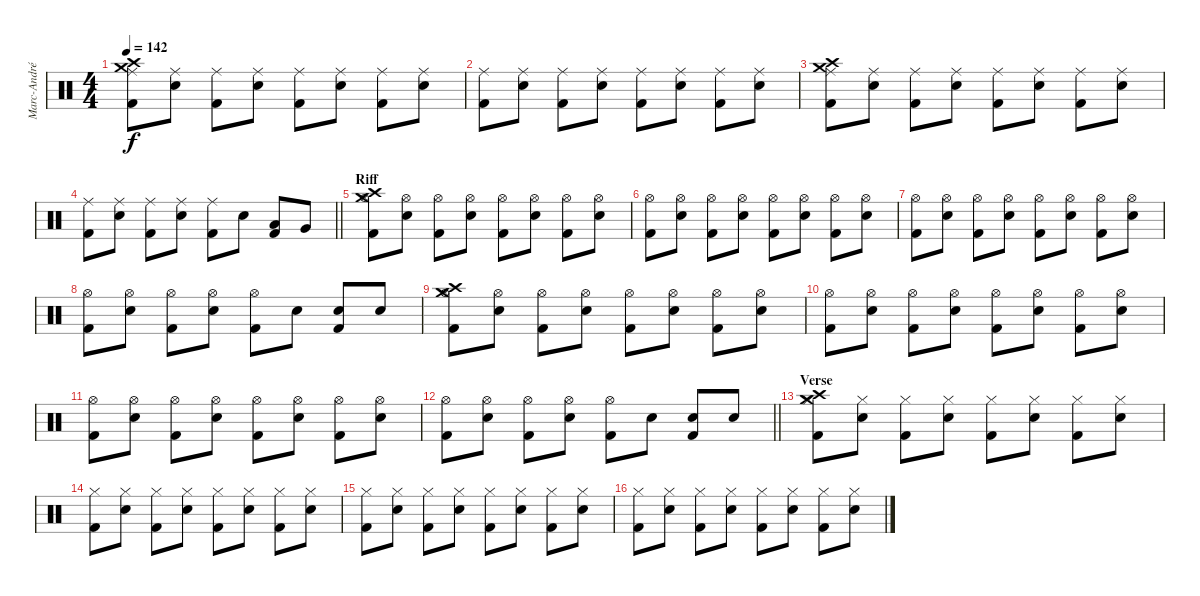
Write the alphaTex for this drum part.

\track ("Marc-André Barabé" "Marc-André") {instrument percussion}
\staff {score}
\articulation defaults
\ts (4 4)
\tempo 142
\clef neutral
\ks c
("Crash high (hit)" "Crash medium (hit)" "Ride (middle)" "Kick (hit) 2").8{dy f} ("Ride (middle)" "Electric Snare (hit)").8 ("Ride (middle)" "Kick (hit) 2"{tr (2 32)}).8 ("Ride (middle)" "Electric Snare (hit)").8 ("Ride (middle)" "Kick (hit) 2").8 ("Ride (middle)" "Electric Snare (hit)").8 ("Ride (middle)" "Kick (hit) 2"{tr (2 32)}).8 ("Ride (middle)" "Electric Snare (hit)").8 |
("Ride (middle)" "Kick (hit) 2").8 ("Ride (middle)" "Electric Snare (hit)").8 ("Ride (middle)" "Kick (hit) 2"{tr (2 32)}).8 ("Ride (middle)" "Electric Snare (hit)").8 ("Ride (middle)" "Kick (hit) 2").8 ("Ride (middle)" "Electric Snare (hit)").8 ("Ride (middle)" "Kick (hit) 2"{tr (2 32)}).8 ("Ride (middle)" "Electric Snare (hit)").8 |
("Crash high (hit)" "Crash medium (hit)" "Ride (middle)" "Kick (hit) 2").8 ("Ride (middle)" "Electric Snare (hit)").8 ("Ride (middle)" "Kick (hit) 2"{tr (2 32)}).8 ("Ride (middle)" "Electric Snare (hit)").8 ("Ride (middle)" "Kick (hit) 2").8 ("Ride (middle)" "Electric Snare (hit)").8 ("Ride (middle)" "Kick (hit) 2"{tr (2 32)}).8 ("Ride (middle)" "Electric Snare (hit)").8 |
\barLineRight lightlight
("Ride (middle)" "Kick (hit) 2").8 ("Ride (middle)" "Electric Snare (hit)").8 ("Ride (middle)" "Kick (hit) 2"{tr (2 32)}).8 ("Ride (middle)" "Electric Snare (hit)").8 ("Ride (middle)" "Kick (hit) 2").8 "Electric Snare (hit)"{tr (4 32)}.8 ("Low Tom (hit)"{tr (4 32)} "Kick (hit) 2"{tr (2 32)}).8 "Very Low Tom (hit)"{tr (4 32)}.8 |
\section ("" "Riff")
("Crash high (hit)" "Crash medium (hit)" "Hi-Hat (open)" "Kick (hit) 2").8 ("Hi-Hat (open)" "Electric Snare (hit)").8 ("Hi-Hat (open)" "Kick (hit) 2"{tr (2 32)}).8 ("Hi-Hat (open)" "Electric Snare (hit)").8 ("Hi-Hat (open)" "Kick (hit) 2").8 ("Hi-Hat (open)" "Electric Snare (hit)").8 ("Hi-Hat (open)" "Kick (hit) 2"{tr (2 32)}).8 ("Hi-Hat (open)" "Electric Snare (hit)").8 |
("Hi-Hat (open)" "Kick (hit) 2").8 ("Hi-Hat (open)" "Electric Snare (hit)").8 ("Hi-Hat (open)" "Kick (hit) 2"{tr (2 32)}).8 ("Hi-Hat (open)" "Electric Snare (hit)").8 ("Hi-Hat (open)" "Kick (hit) 2").8 ("Hi-Hat (open)" "Electric Snare (hit)").8 ("Hi-Hat (open)" "Kick (hit) 2"{tr (2 32)}).8 ("Hi-Hat (open)" "Electric Snare (hit)").8 |
("Hi-Hat (open)" "Kick (hit) 2").8 ("Hi-Hat (open)" "Electric Snare (hit)").8 ("Hi-Hat (open)" "Kick (hit) 2"{tr (2 32)}).8 ("Hi-Hat (open)" "Electric Snare (hit)").8 ("Hi-Hat (open)" "Kick (hit) 2").8 ("Hi-Hat (open)" "Electric Snare (hit)").8 ("Hi-Hat (open)" "Kick (hit) 2"{tr (2 32)}).8 ("Hi-Hat (open)" "Electric Snare (hit)").8 |
("Hi-Hat (open)" "Kick (hit) 2").8 ("Hi-Hat (open)" "Electric Snare (hit)").8 ("Hi-Hat (open)" "Kick (hit) 2"{tr (2 32)}).8 ("Hi-Hat (open)" "Electric Snare (hit)").8 ("Hi-Hat (open)" "Kick (hit) 2").8 "Electric Snare (hit)"{tr (4 32)}.8 ("Electric Snare (hit)"{tr (4 32)} "Kick (hit) 2"{tr (2 32)}).8 "Electric Snare (hit)"{tr (4 32)}.8 |
("Crash high (hit)" "Crash medium (hit)" "Hi-Hat (open)" "Kick (hit) 2").8 ("Hi-Hat (open)" "Electric Snare (hit)").8 ("Hi-Hat (open)" "Kick (hit) 2"{tr (2 32)}).8 ("Hi-Hat (open)" "Electric Snare (hit)").8 ("Hi-Hat (open)" "Kick (hit) 2").8 ("Hi-Hat (open)" "Electric Snare (hit)").8 ("Hi-Hat (open)" "Kick (hit) 2"{tr (2 32)}).8 ("Hi-Hat (open)" "Electric Snare (hit)").8 |
("Hi-Hat (open)" "Kick (hit) 2").8 ("Hi-Hat (open)" "Electric Snare (hit)").8 ("Hi-Hat (open)" "Kick (hit) 2"{tr (2 32)}).8 ("Hi-Hat (open)" "Electric Snare (hit)").8 ("Hi-Hat (open)" "Kick (hit) 2").8 ("Hi-Hat (open)" "Electric Snare (hit)").8 ("Hi-Hat (open)" "Kick (hit) 2"{tr (2 32)}).8 ("Hi-Hat (open)" "Electric Snare (hit)").8 |
("Hi-Hat (open)" "Kick (hit) 2").8 ("Hi-Hat (open)" "Electric Snare (hit)").8 ("Hi-Hat (open)" "Kick (hit) 2"{tr (2 32)}).8 ("Hi-Hat (open)" "Electric Snare (hit)").8 ("Hi-Hat (open)" "Kick (hit) 2").8 ("Hi-Hat (open)" "Electric Snare (hit)").8 ("Hi-Hat (open)" "Kick (hit) 2"{tr (2 32)}).8 ("Hi-Hat (open)" "Electric Snare (hit)").8 |
\barLineRight lightlight
("Hi-Hat (open)" "Kick (hit) 2").8 ("Hi-Hat (open)" "Electric Snare (hit)").8 ("Hi-Hat (open)" "Kick (hit) 2"{tr (2 32)}).8 ("Hi-Hat (open)" "Electric Snare (hit)").8 ("Hi-Hat (open)" "Kick (hit) 2").8 "Electric Snare (hit)".8 ("Electric Snare (hit)"{tr (4 32)} "Kick (hit) 2"{tr (2 32)}).8 "Electric Snare (hit)"{tr (4 32)}.8 |
\section ("" "Verse")
("Crash high (hit)" "Crash medium (hit)" "Hi-Hat (closed)" "Kick (hit) 2").8 ("Hi-Hat (closed)" "Electric Snare (hit)").8 ("Hi-Hat (closed)" "Kick (hit) 2"{tr (2 32)}).8 ("Hi-Hat (closed)" "Electric Snare (hit)").8 ("Hi-Hat (closed)" "Kick (hit) 2").8 ("Hi-Hat (closed)" "Electric Snare (hit)").8 ("Hi-Hat (closed)" "Kick (hit) 2"{tr (2 32)}).8 ("Hi-Hat (closed)" "Electric Snare (hit)").8 |
("Hi-Hat (closed)" "Kick (hit) 2").8 ("Hi-Hat (closed)" "Electric Snare (hit)").8 ("Hi-Hat (closed)" "Kick (hit) 2"{tr (2 32)}).8 ("Hi-Hat (closed)" "Electric Snare (hit)").8 ("Hi-Hat (closed)" "Kick (hit) 2").8 ("Hi-Hat (closed)" "Electric Snare (hit)").8 ("Hi-Hat (closed)" "Kick (hit) 2"{tr (2 32)}).8 ("Hi-Hat (closed)" "Electric Snare (hit)").8 |
("Hi-Hat (closed)" "Kick (hit) 2").8 ("Hi-Hat (closed)" "Electric Snare (hit)").8 ("Hi-Hat (closed)" "Kick (hit) 2"{tr (2 32)}).8 ("Hi-Hat (closed)" "Electric Snare (hit)").8 ("Hi-Hat (closed)" "Kick (hit) 2").8 ("Hi-Hat (closed)" "Electric Snare (hit)").8 ("Hi-Hat (closed)" "Kick (hit) 2"{tr (2 32)}).8 ("Hi-Hat (closed)" "Electric Snare (hit)").8 |
("Hi-Hat (closed)" "Kick (hit) 2").8 ("Hi-Hat (closed)" "Electric Snare (hit)").8 ("Hi-Hat (closed)" "Kick (hit) 2"{tr (2 32)}).8 ("Hi-Hat (closed)" "Electric Snare (hit)").8 ("Hi-Hat (closed)" "Kick (hit) 2").8 ("Hi-Hat (closed)" "Electric Snare (hit)").8 ("Hi-Hat (closed)" "Kick (hit) 2"{tr (2 32)}).8 ("Hi-Hat (closed)" "Electric Snare (hit)").8
